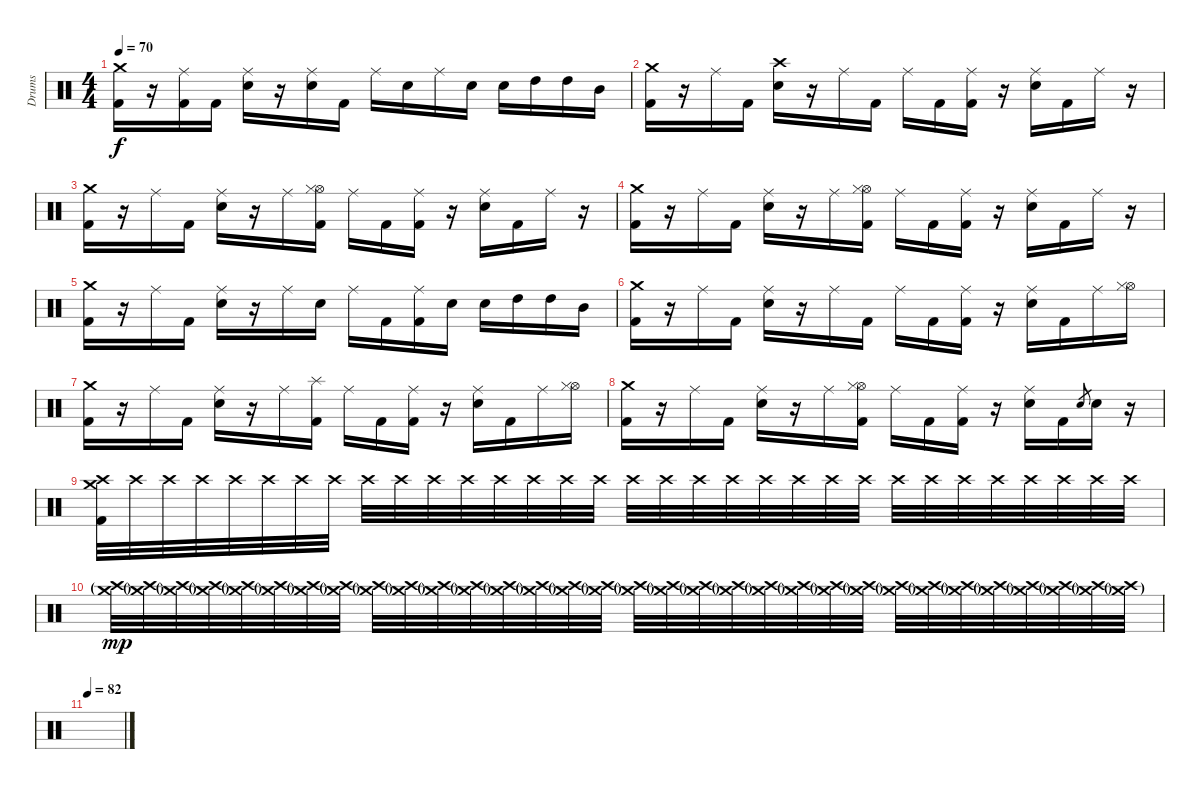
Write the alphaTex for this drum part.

\track ("Drums" "Drums") {instrument percussion}
\staff {score}
\articulation defaults
\ts (4 4)
\tempo 70
\clef neutral
\ks c
("Crash medium (hit)" "Kick (hit) 2").16{dy f} r.16 ("Ride (middle)" "Kick (hit) 2").16 "Kick (hit) 2".16 ("Ride (middle)" "Electric Snare (hit)").16 r.16 ("Ride (middle)" "Electric Snare (hit)").16 "Kick (hit) 2".16 "Ride (middle)".16 "Electric Snare (hit)".16 "Ride (middle)".16 "Electric Snare (hit)".16 "Electric Snare (hit)".16 "High Tom (hit)".16 "High Tom (hit)".16 "Mid Tom (hit)".16 |
("Crash medium (hit)" "Kick (hit) 2").16 r.16 "Ride (middle)".16 "Kick (hit) 2".16 ("Crash high (hit)" "Electric Snare (hit)").16 r.16 "Ride (middle)".16 "Kick (hit) 2".16 "Ride (middle)".16 "Kick (hit) 2".16 ("Ride (middle)" "Kick (hit) 2").16 r.16 ("Ride (middle)" "Electric Snare (hit)").16 "Kick (hit) 2".16 "Ride (middle)".16 r.16 |
("Crash medium (hit)" "Kick (hit) 2").16 r.16 "Ride (middle)".16 "Kick (hit) 2".16 ("Ride (middle)" "Electric Snare (hit)").16 r.16 "Ride (middle)".16 ("Hi-Hat (open)" "Hi-Hat (closed)" "Kick (hit) 2").16 "Ride (middle)".16 "Kick (hit) 2".16 ("Ride (middle)" "Kick (hit) 2").16 r.16 ("Ride (middle)" "Electric Snare (hit)").16 "Kick (hit) 2".16 "Ride (middle)".16 r.16 |
("Crash medium (hit)" "Kick (hit) 2").16 r.16 "Ride (middle)".16 "Kick (hit) 2".16 ("Ride (middle)" "Electric Snare (hit)").16 r.16 "Ride (middle)".16 ("Hi-Hat (open)" "Hi-Hat (closed)" "Kick (hit) 2").16 "Ride (middle)".16 "Kick (hit) 2".16 ("Ride (middle)" "Kick (hit) 2").16 r.16 ("Ride (middle)" "Electric Snare (hit)").16 "Kick (hit) 2".16 "Ride (middle)".16 r.16 |
("Crash medium (hit)" "Kick (hit) 2").16 r.16 "Ride (middle)".16 "Kick (hit) 2".16 ("Ride (middle)" "Electric Snare (hit)").16 r.16 "Ride (middle)".16 "Electric Snare (hit)".16 "Ride (middle)".16 "Kick (hit) 2".16 ("Ride (middle)" "Kick (hit) 2").16 "Electric Snare (hit)".16 "Electric Snare (hit)".16 "High Tom (hit)".16 "High Tom (hit)".16 "Mid Tom (hit)".16 |
("Crash medium (hit)" "Kick (hit) 2").16 r.16 "Ride (middle)".16 "Kick (hit) 2".16 ("Ride (middle)" "Electric Snare (hit)").16 r.16 "Ride (middle)".16 "Kick (hit) 2".16 "Ride (middle)".16 "Kick (hit) 2".16 ("Ride (middle)" "Kick (hit) 2").16 r.16 ("Ride (middle)" "Electric Snare (hit)").16 "Kick (hit) 2".16 "Ride (middle)".16 ("Hi-Hat (open)" "Hi-Hat (closed)").16 |
("Crash medium (hit)" "Kick (hit) 2").16 r.16 "Ride (middle)".16 "Kick (hit) 2".16 ("Ride (middle)" "Electric Snare (hit)").16 r.16 "Ride (middle)".16 ("Splash (hit)" "Kick (hit) 2").16 "Ride (middle)".16 "Kick (hit) 2".16 ("Ride (middle)" "Kick (hit) 2").16 r.16 ("Ride (middle)" "Electric Snare (hit)").16 "Kick (hit) 2".16 "Ride (middle)".16 ("Hi-Hat (open)" "Hi-Hat (closed)").16 |
("Crash medium (hit)" "Kick (hit) 2").16 r.16 "Ride (middle)".16 "Kick (hit) 2".16 ("Ride (middle)" "Electric Snare (hit)").16 r.16 "Ride (middle)".16 ("Hi-Hat (open)" "Hi-Hat (closed)" "Kick (hit) 2").16 "Ride (middle)".16 "Kick (hit) 2".16 ("Ride (middle)" "Kick (hit) 2").16 r.16 ("Ride (middle)" "Electric Snare (hit)").16 "Kick (hit) 2".16 "Electric Snare (hit)".8{gr} "Electric Snare (hit)".16 r.16 |
("Crash medium (hit)" "Crash high (hit)" "Kick (hit) 2").32{volume 4} "Crash high (hit)".32 "Crash high (hit)".32 "Crash high (hit)".32 "Crash high (hit)".32 "Crash high (hit)".32 "Crash high (hit)".32 "Crash high (hit)".32 "Crash high (hit)".32 "Crash high (hit)".32 "Crash high (hit)".32 "Crash high (hit)".32 "Crash high (hit)".32 "Crash high (hit)".32 "Crash high (hit)".32 "Crash high (hit)".32 "Crash high (hit)".32 "Crash high (hit)".32 "Crash high (hit)".32 "Crash high (hit)".32 "Crash high (hit)".32 "Crash high (hit)".32 "Crash high (hit)".32 "Crash high (hit)".32 "Crash high (hit)".32 "Crash high (hit)".32 "Crash high (hit)".32 "Crash high (hit)".32 "Crash high (hit)".32 "Crash high (hit)".32 "Crash high (hit)".32 "Crash high (hit)".32 |
("Crash high (hit)"{g} "Crash medium (hit)"{g}).32{dy mp} ("Crash high (hit)"{g} "Crash medium (hit)"{g}).32 ("Crash high (hit)"{g} "Crash medium (hit)"{g}).32 ("Crash high (hit)"{g} "Crash medium (hit)"{g}).32 ("Crash high (hit)"{g} "Crash medium (hit)"{g}).32 ("Crash high (hit)"{g} "Crash medium (hit)"{g}).32 ("Crash high (hit)"{g} "Crash medium (hit)"{g}).32 ("Crash high (hit)"{g} "Crash medium (hit)"{g}).32 ("Crash high (hit)"{g} "Crash medium (hit)"{g}).32 ("Crash high (hit)"{g} "Crash medium (hit)"{g}).32 ("Crash high (hit)"{g} "Crash medium (hit)"{g}).32 ("Crash high (hit)"{g} "Crash medium (hit)"{g}).32 ("Crash high (hit)"{g} "Crash medium (hit)"{g}).32 ("Crash high (hit)"{g} "Crash medium (hit)"{g}).32 ("Crash high (hit)"{g} "Crash medium (hit)"{g}).32 ("Crash high (hit)"{g} "Crash medium (hit)"{g}).32 ("Crash high (hit)"{g} "Crash medium (hit)"{g}).32 ("Crash high (hit)"{g} "Crash medium (hit)"{g}).32 ("Crash high (hit)"{g} "Crash medium (hit)"{g}).32 ("Crash high (hit)"{g} "Crash medium (hit)"{g}).32 ("Crash high (hit)"{g} "Crash medium (hit)"{g}).32 ("Crash high (hit)"{g} "Crash medium (hit)"{g}).32 ("Crash high (hit)"{g} "Crash medium (hit)"{g}).32 ("Crash high (hit)"{g} "Crash medium (hit)"{g}).32 ("Crash high (hit)"{g} "Crash medium (hit)"{g}).32 ("Crash high (hit)"{g} "Crash medium (hit)"{g}).32 ("Crash high (hit)"{g} "Crash medium (hit)"{g}).32 ("Crash high (hit)"{g} "Crash medium (hit)"{g}).32 ("Crash high (hit)"{g} "Crash medium (hit)"{g}).32 ("Crash high (hit)"{g} "Crash medium (hit)"{g}).32 ("Crash high (hit)"{g} "Crash medium (hit)"{g}).32 ("Crash high (hit)"{g} "Crash medium (hit)"{g}).32 |
\tempo 82
